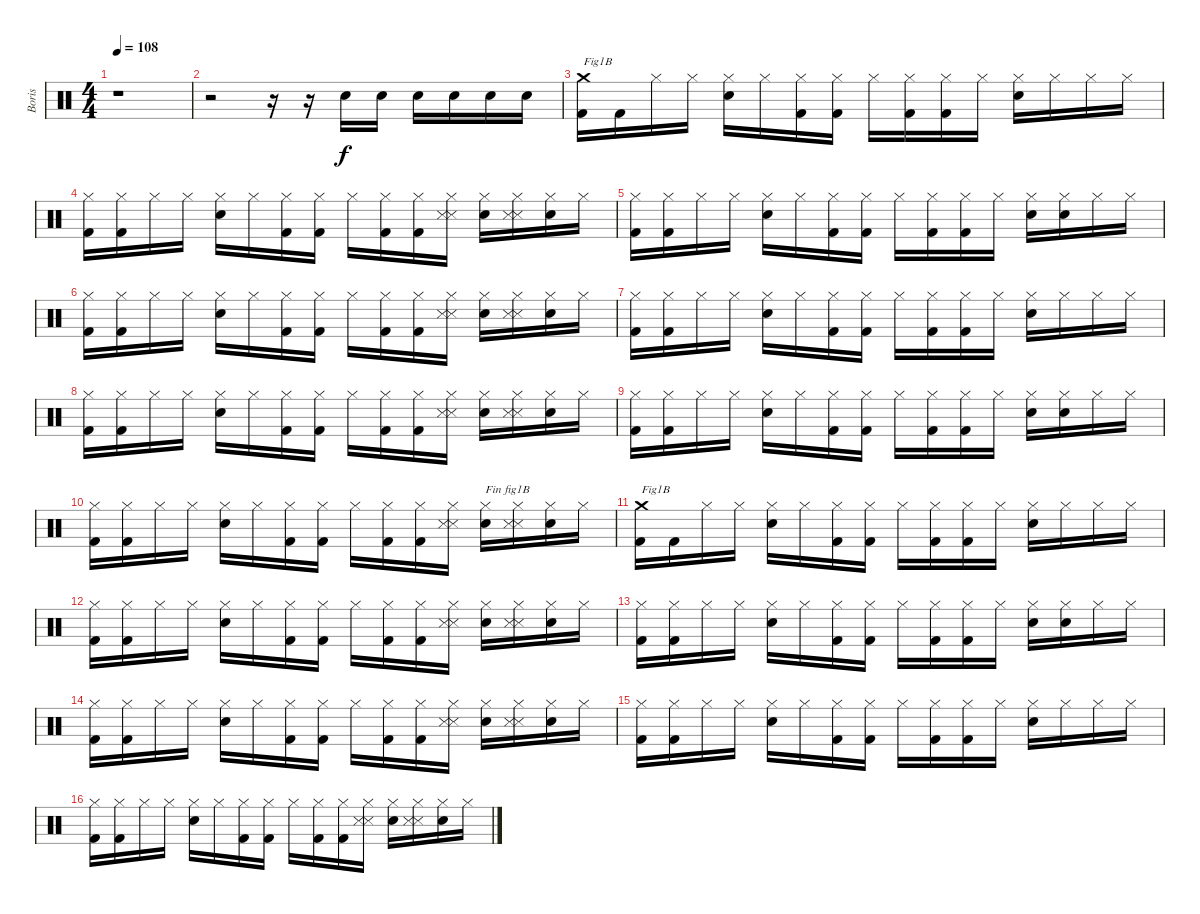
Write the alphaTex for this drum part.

\track ("Boris" "Boris") {instrument percussion}
\staff {score}
\articulation defaults
\ts (4 4)
\tempo 108
\clef neutral
\ks c
r.1{dy f} |
r.2 r.16 r.16 "Electric Snare (hit)".16 "Electric Snare (hit)".16 "Electric Snare (hit)".16 "Electric Snare (hit)".16 "Electric Snare (hit)".16 "Electric Snare (hit)".16 |
("Kick (hit) 2" "Crash medium (hit)").16{txt "Fig1B"} "Kick (hit) 2".16 "Hi-Hat (closed)".16 "Hi-Hat (closed)".16 ("Electric Snare (hit)" "Hi-Hat (closed)").16 "Hi-Hat (closed)".16 ("Kick (hit) 2" "Hi-Hat (closed)").16 ("Kick (hit) 2" "Hi-Hat (closed)").16 "Hi-Hat (closed)".16 ("Kick (hit) 2" "Hi-Hat (closed)").16 ("Kick (hit) 2" "Hi-Hat (closed)").16 "Hi-Hat (closed)".16 ("Electric Snare (hit)" "Hi-Hat (closed)").16 "Hi-Hat (closed)".16 "Hi-Hat (closed)".16 "Hi-Hat (closed)".16 |
("Kick (hit) 2" "Hi-Hat (closed)").16 ("Kick (hit) 2" "Hi-Hat (closed)").16 "Hi-Hat (closed)".16 "Hi-Hat (closed)".16 ("Electric Snare (hit)" "Hi-Hat (closed)").16 "Hi-Hat (closed)".16 ("Kick (hit) 2" "Hi-Hat (closed)").16 ("Kick (hit) 2" "Hi-Hat (closed)").16 "Hi-Hat (closed)".16 ("Kick (hit) 2" "Hi-Hat (closed)").16 ("Kick (hit) 2" "Hi-Hat (closed)").16 ("Metronome (hit)" "Snare (side stick) 3" "Hi-Hat (closed)").16 ("Electric Snare (hit)" "Hi-Hat (closed)").16 ("Metronome (hit)" "Snare (side stick) 3" "Hi-Hat (closed)").16 ("Electric Snare (hit)" "Hi-Hat (closed)").16 "Hi-Hat (closed)".16 |
("Kick (hit) 2" "Hi-Hat (closed)").16 ("Kick (hit) 2" "Hi-Hat (closed)").16 "Hi-Hat (closed)".16 "Hi-Hat (closed)".16 ("Electric Snare (hit)" "Hi-Hat (closed)").16 "Hi-Hat (closed)".16 ("Kick (hit) 2" "Hi-Hat (closed)").16 ("Kick (hit) 2" "Hi-Hat (closed)").16 "Hi-Hat (closed)".16 ("Kick (hit) 2" "Hi-Hat (closed)").16 ("Kick (hit) 2" "Hi-Hat (closed)").16 "Hi-Hat (closed)".16 ("Electric Snare (hit)" "Hi-Hat (closed)").16 ("Electric Snare (hit)" "Hi-Hat (closed)").16 "Hi-Hat (closed)".16 "Hi-Hat (closed)".16 |
("Kick (hit) 2" "Hi-Hat (closed)").16 ("Kick (hit) 2" "Hi-Hat (closed)").16 "Hi-Hat (closed)".16 "Hi-Hat (closed)".16 ("Electric Snare (hit)" "Hi-Hat (closed)").16 "Hi-Hat (closed)".16 ("Kick (hit) 2" "Hi-Hat (closed)").16 ("Kick (hit) 2" "Hi-Hat (closed)").16 "Hi-Hat (closed)".16 ("Kick (hit) 2" "Hi-Hat (closed)").16 ("Kick (hit) 2" "Hi-Hat (closed)").16 ("Metronome (hit)" "Snare (side stick) 3" "Hi-Hat (closed)").16 ("Electric Snare (hit)" "Hi-Hat (closed)").16 ("Metronome (hit)" "Snare (side stick) 3" "Hi-Hat (closed)").16 ("Electric Snare (hit)" "Hi-Hat (closed)").16 "Hi-Hat (closed)".16 |
("Kick (hit) 2" "Hi-Hat (closed)").16 ("Kick (hit) 2" "Hi-Hat (closed)").16 "Hi-Hat (closed)".16 "Hi-Hat (closed)".16 ("Electric Snare (hit)" "Hi-Hat (closed)").16 "Hi-Hat (closed)".16 ("Kick (hit) 2" "Hi-Hat (closed)").16 ("Kick (hit) 2" "Hi-Hat (closed)").16 "Hi-Hat (closed)".16 ("Kick (hit) 2" "Hi-Hat (closed)").16 ("Kick (hit) 2" "Hi-Hat (closed)").16 "Hi-Hat (closed)".16 ("Electric Snare (hit)" "Hi-Hat (closed)").16 "Hi-Hat (closed)".16 "Hi-Hat (closed)".16 "Hi-Hat (closed)".16 |
("Kick (hit) 2" "Hi-Hat (closed)").16 ("Kick (hit) 2" "Hi-Hat (closed)").16 "Hi-Hat (closed)".16 "Hi-Hat (closed)".16 ("Electric Snare (hit)" "Hi-Hat (closed)").16 "Hi-Hat (closed)".16 ("Kick (hit) 2" "Hi-Hat (closed)").16 ("Kick (hit) 2" "Hi-Hat (closed)").16 "Hi-Hat (closed)".16 ("Kick (hit) 2" "Hi-Hat (closed)").16 ("Kick (hit) 2" "Hi-Hat (closed)").16 ("Metronome (hit)" "Snare (side stick) 3" "Hi-Hat (closed)").16 ("Electric Snare (hit)" "Hi-Hat (closed)").16 ("Metronome (hit)" "Snare (side stick) 3" "Hi-Hat (closed)").16 ("Electric Snare (hit)" "Hi-Hat (closed)").16 "Hi-Hat (closed)".16 |
("Kick (hit) 2" "Hi-Hat (closed)").16 ("Kick (hit) 2" "Hi-Hat (closed)").16 "Hi-Hat (closed)".16 "Hi-Hat (closed)".16 ("Electric Snare (hit)" "Hi-Hat (closed)").16 "Hi-Hat (closed)".16 ("Kick (hit) 2" "Hi-Hat (closed)").16 ("Kick (hit) 2" "Hi-Hat (closed)").16 "Hi-Hat (closed)".16 ("Kick (hit) 2" "Hi-Hat (closed)").16 ("Kick (hit) 2" "Hi-Hat (closed)").16 "Hi-Hat (closed)".16 ("Electric Snare (hit)" "Hi-Hat (closed)").16 ("Electric Snare (hit)" "Hi-Hat (closed)").16 "Hi-Hat (closed)".16 "Hi-Hat (closed)".16 |
("Kick (hit) 2" "Hi-Hat (closed)").16 ("Kick (hit) 2" "Hi-Hat (closed)").16 "Hi-Hat (closed)".16 "Hi-Hat (closed)".16 ("Electric Snare (hit)" "Hi-Hat (closed)").16 "Hi-Hat (closed)".16 ("Kick (hit) 2" "Hi-Hat (closed)").16 ("Kick (hit) 2" "Hi-Hat (closed)").16 "Hi-Hat (closed)".16 ("Kick (hit) 2" "Hi-Hat (closed)").16 ("Kick (hit) 2" "Hi-Hat (closed)").16 ("Metronome (hit)" "Snare (side stick) 3" "Hi-Hat (closed)").16 ("Electric Snare (hit)" "Hi-Hat (closed)").16{txt "Fin fig1B"} ("Metronome (hit)" "Snare (side stick) 3" "Hi-Hat (closed)").16 ("Electric Snare (hit)" "Hi-Hat (closed)").16 "Hi-Hat (closed)".16 |
("Kick (hit) 2" "Crash medium (hit)").16{txt "Fig1B"} "Kick (hit) 2".16 "Hi-Hat (closed)".16 "Hi-Hat (closed)".16 ("Electric Snare (hit)" "Hi-Hat (closed)").16 "Hi-Hat (closed)".16 ("Kick (hit) 2" "Hi-Hat (closed)").16 ("Kick (hit) 2" "Hi-Hat (closed)").16 "Hi-Hat (closed)".16 ("Kick (hit) 2" "Hi-Hat (closed)").16 ("Kick (hit) 2" "Hi-Hat (closed)").16 "Hi-Hat (closed)".16 ("Electric Snare (hit)" "Hi-Hat (closed)").16 "Hi-Hat (closed)".16 "Hi-Hat (closed)".16 "Hi-Hat (closed)".16 |
("Kick (hit) 2" "Hi-Hat (closed)").16 ("Kick (hit) 2" "Hi-Hat (closed)").16 "Hi-Hat (closed)".16 "Hi-Hat (closed)".16 ("Electric Snare (hit)" "Hi-Hat (closed)").16 "Hi-Hat (closed)".16 ("Kick (hit) 2" "Hi-Hat (closed)").16 ("Kick (hit) 2" "Hi-Hat (closed)").16 "Hi-Hat (closed)".16 ("Kick (hit) 2" "Hi-Hat (closed)").16 ("Kick (hit) 2" "Hi-Hat (closed)").16 ("Metronome (hit)" "Snare (side stick) 3" "Hi-Hat (closed)").16 ("Electric Snare (hit)" "Hi-Hat (closed)").16 ("Metronome (hit)" "Snare (side stick) 3" "Hi-Hat (closed)").16 ("Electric Snare (hit)" "Hi-Hat (closed)").16 "Hi-Hat (closed)".16 |
("Kick (hit) 2" "Hi-Hat (closed)").16 ("Kick (hit) 2" "Hi-Hat (closed)").16 "Hi-Hat (closed)".16 "Hi-Hat (closed)".16 ("Electric Snare (hit)" "Hi-Hat (closed)").16 "Hi-Hat (closed)".16 ("Kick (hit) 2" "Hi-Hat (closed)").16 ("Kick (hit) 2" "Hi-Hat (closed)").16 "Hi-Hat (closed)".16 ("Kick (hit) 2" "Hi-Hat (closed)").16 ("Kick (hit) 2" "Hi-Hat (closed)").16 "Hi-Hat (closed)".16 ("Electric Snare (hit)" "Hi-Hat (closed)").16 ("Electric Snare (hit)" "Hi-Hat (closed)").16 "Hi-Hat (closed)".16 "Hi-Hat (closed)".16 |
("Kick (hit) 2" "Hi-Hat (closed)").16 ("Kick (hit) 2" "Hi-Hat (closed)").16 "Hi-Hat (closed)".16 "Hi-Hat (closed)".16 ("Electric Snare (hit)" "Hi-Hat (closed)").16 "Hi-Hat (closed)".16 ("Kick (hit) 2" "Hi-Hat (closed)").16 ("Kick (hit) 2" "Hi-Hat (closed)").16 "Hi-Hat (closed)".16 ("Kick (hit) 2" "Hi-Hat (closed)").16 ("Kick (hit) 2" "Hi-Hat (closed)").16 ("Metronome (hit)" "Snare (side stick) 3" "Hi-Hat (closed)").16 ("Electric Snare (hit)" "Hi-Hat (closed)").16 ("Metronome (hit)" "Snare (side stick) 3" "Hi-Hat (closed)").16 ("Electric Snare (hit)" "Hi-Hat (closed)").16 "Hi-Hat (closed)".16 |
("Kick (hit) 2" "Hi-Hat (closed)").16 ("Kick (hit) 2" "Hi-Hat (closed)").16 "Hi-Hat (closed)".16 "Hi-Hat (closed)".16 ("Electric Snare (hit)" "Hi-Hat (closed)").16 "Hi-Hat (closed)".16 ("Kick (hit) 2" "Hi-Hat (closed)").16 ("Kick (hit) 2" "Hi-Hat (closed)").16 "Hi-Hat (closed)".16 ("Kick (hit) 2" "Hi-Hat (closed)").16 ("Kick (hit) 2" "Hi-Hat (closed)").16 "Hi-Hat (closed)".16 ("Electric Snare (hit)" "Hi-Hat (closed)").16 "Hi-Hat (closed)".16 "Hi-Hat (closed)".16 "Hi-Hat (closed)".16 |
("Kick (hit) 2" "Hi-Hat (closed)").16 ("Kick (hit) 2" "Hi-Hat (closed)").16 "Hi-Hat (closed)".16 "Hi-Hat (closed)".16 ("Electric Snare (hit)" "Hi-Hat (closed)").16 "Hi-Hat (closed)".16 ("Kick (hit) 2" "Hi-Hat (closed)").16 ("Kick (hit) 2" "Hi-Hat (closed)").16 "Hi-Hat (closed)".16 ("Kick (hit) 2" "Hi-Hat (closed)").16 ("Kick (hit) 2" "Hi-Hat (closed)").16 ("Metronome (hit)" "Snare (side stick) 3" "Hi-Hat (closed)").16 ("Electric Snare (hit)" "Hi-Hat (closed)").16 ("Metronome (hit)" "Snare (side stick) 3" "Hi-Hat (closed)").16 ("Electric Snare (hit)" "Hi-Hat (closed)").16 "Hi-Hat (closed)".16
